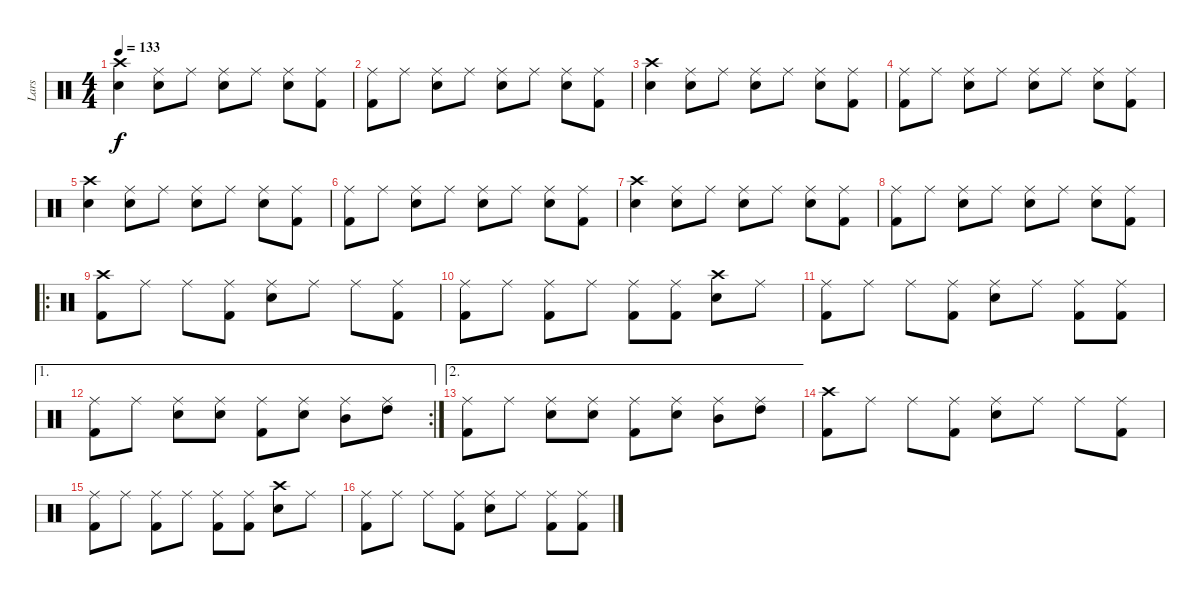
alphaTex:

\track ("Lars" "Lars") {instrument percussion}
\staff {score}
\articulation defaults
\ts (4 4)
\tempo 133
\clef neutral
\ks c
("Crash high (hit)" "Electric Snare (hit)").4{dy f} ("Ride (middle)" "Electric Snare (hit)").8 "Ride (middle)".8 ("Ride (middle)" "Electric Snare (hit)").8 "Ride (middle)".8 ("Ride (middle)" "Electric Snare (hit)").8 ("Ride (middle)" "Kick (hit) 2").8 |
("Ride (middle)" "Kick (hit) 2").8 "Ride (middle)".8 ("Ride (middle)" "Electric Snare (hit)").8 "Ride (middle)".8 ("Ride (middle)" "Electric Snare (hit)").8 "Ride (middle)".8 ("Ride (middle)" "Electric Snare (hit)").8 ("Ride (middle)" "Kick (hit) 2").8 |
("Crash high (hit)" "Electric Snare (hit)").4 ("Ride (middle)" "Electric Snare (hit)").8 "Ride (middle)".8 ("Ride (middle)" "Electric Snare (hit)").8 "Ride (middle)".8 ("Ride (middle)" "Electric Snare (hit)").8 ("Ride (middle)" "Kick (hit) 2").8 |
("Ride (middle)" "Kick (hit) 2").8 "Ride (middle)".8 ("Ride (middle)" "Electric Snare (hit)").8 "Ride (middle)".8 ("Ride (middle)" "Electric Snare (hit)").8 "Ride (middle)".8 ("Ride (middle)" "Electric Snare (hit)").8 ("Ride (middle)" "Kick (hit) 2").8 |
("Crash high (hit)" "Electric Snare (hit)").4 ("Ride (middle)" "Electric Snare (hit)").8 "Ride (middle)".8 ("Ride (middle)" "Electric Snare (hit)").8 "Ride (middle)".8 ("Ride (middle)" "Electric Snare (hit)").8 ("Ride (middle)" "Kick (hit) 2").8 |
("Ride (middle)" "Kick (hit) 2").8 "Ride (middle)".8 ("Ride (middle)" "Electric Snare (hit)").8 "Ride (middle)".8 ("Ride (middle)" "Electric Snare (hit)").8 "Ride (middle)".8 ("Ride (middle)" "Electric Snare (hit)").8 ("Ride (middle)" "Kick (hit) 2").8 |
("Crash high (hit)" "Electric Snare (hit)").4 ("Ride (middle)" "Electric Snare (hit)").8 "Ride (middle)".8 ("Ride (middle)" "Electric Snare (hit)").8 "Ride (middle)".8 ("Ride (middle)" "Electric Snare (hit)").8 ("Ride (middle)" "Kick (hit) 2").8 |
("Ride (middle)" "Kick (hit) 2").8 "Ride (middle)".8 ("Ride (middle)" "Electric Snare (hit)").8 "Ride (middle)".8 ("Ride (middle)" "Electric Snare (hit)").8 "Ride (middle)".8 ("Ride (middle)" "Electric Snare (hit)").8 ("Ride (middle)" "Kick (hit) 2").8 |
\ro
("Crash high (hit)" "Kick (hit) 2").8 "Ride (middle)".8 "Ride (middle)".8 ("Ride (middle)" "Kick (hit) 2").8 ("Ride (middle)" "Electric Snare (hit)").8 "Ride (middle)".8 "Ride (middle)".8 ("Ride (middle)" "Kick (hit) 2").8 |
("Ride (middle)" "Kick (hit) 2").8 "Ride (middle)".8 ("Ride (middle)" "Kick (hit) 2").8 "Ride (middle)".8 ("Ride (middle)" "Kick (hit) 2").8 ("Ride (middle)" "Kick (hit) 2").8 ("Crash high (hit)" "Electric Snare (hit)").8 "Ride (middle)".8 |
("Ride (middle)" "Kick (hit) 2").8 "Ride (middle)".8 "Ride (middle)".8 ("Ride (middle)" "Kick (hit) 2").8 ("Ride (middle)" "Electric Snare (hit)").8 "Ride (middle)".8 ("Ride (middle)" "Kick (hit) 2").8 ("Ride (middle)" "Kick (hit) 2").8 |
\ae 1
\rc 2
("Ride (middle)" "Kick (hit) 2").8 "Ride (middle)".8 ("Ride (middle)" "Electric Snare (hit)").8 ("Ride (middle)" "Electric Snare (hit)").8 ("Ride (middle)" "Kick (hit) 2").8 ("Ride (middle)" "Electric Snare (hit)").8 ("Ride (middle)" "Mid Tom (hit)").8 ("Ride (middle)" "High Tom (hit)").8 |
\ae 2
("Ride (middle)" "Kick (hit) 2").8 "Ride (middle)".8 ("Ride (middle)" "Electric Snare (hit)").8 ("Ride (middle)" "Electric Snare (hit)").8 ("Ride (middle)" "Kick (hit) 2").8 ("Ride (middle)" "Electric Snare (hit)").8 ("Ride (middle)" "Mid Tom (hit)").8 ("Ride (middle)" "High Tom (hit)").8 |
("Crash high (hit)" "Kick (hit) 2").8 "Ride (middle)".8 "Ride (middle)".8 ("Ride (middle)" "Kick (hit) 2").8 ("Ride (middle)" "Electric Snare (hit)").8 "Ride (middle)".8 "Ride (middle)".8 ("Ride (middle)" "Kick (hit) 2").8 |
("Ride (middle)" "Kick (hit) 2").8 "Ride (middle)".8 ("Ride (middle)" "Kick (hit) 2").8 "Ride (middle)".8 ("Ride (middle)" "Kick (hit) 2").8 ("Ride (middle)" "Kick (hit) 2").8 ("Crash high (hit)" "Electric Snare (hit)").8 "Ride (middle)".8 |
("Ride (middle)" "Kick (hit) 2").8 "Ride (middle)".8 "Ride (middle)".8 ("Ride (middle)" "Kick (hit) 2").8 ("Ride (middle)" "Electric Snare (hit)").8 "Ride (middle)".8 ("Ride (middle)" "Kick (hit) 2").8 ("Ride (middle)" "Kick (hit) 2").8
